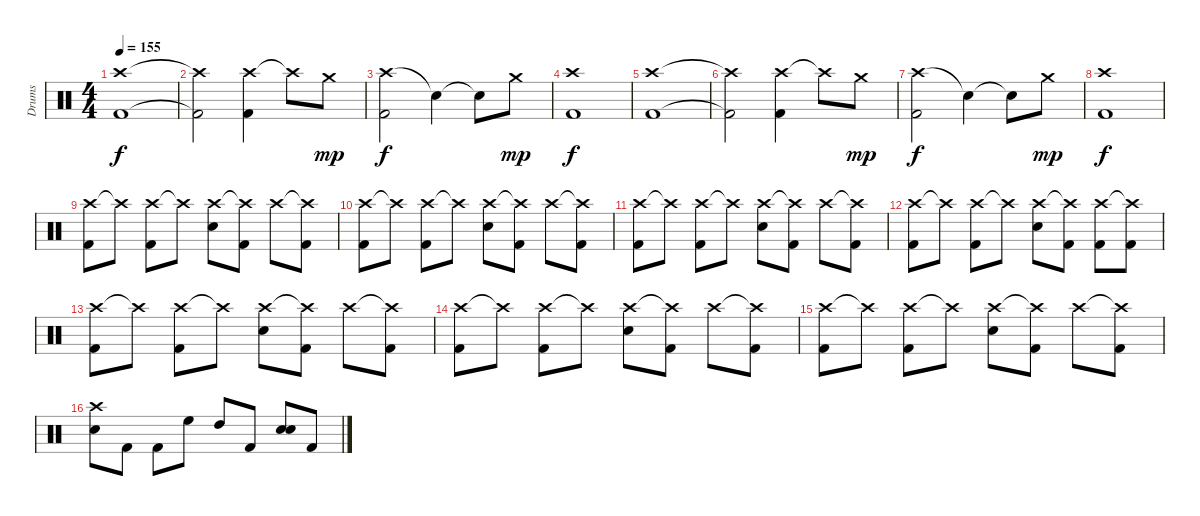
\track ("Drums" "Drums") {instrument percussion}
\staff {score}
\articulation defaults
\ts (4 4)
\tempo 155
\clef neutral
\ks c
("Crash high (hit)" "Kick (hit) 2").1{dy f} |
("Crash high (hit)"{t} "Kick (hit) 2"{t}).2 ("Crash high (hit)" "Kick (hit) 2").4 "Crash high (hit)"{t}.8 "Crash medium (hit)".8{dy mp} |
("Crash high (hit)" "Kick (hit) 2").2{dy f} "Snare (hit)"{t}.4 "Snare (hit)"{t}.8 "Crash medium (hit)".8{dy mp} |
("Crash high (hit)" "Kick (hit) 2").1{dy f} |
("Crash high (hit)" "Kick (hit) 2").1 |
("Crash high (hit)"{t} "Kick (hit) 2"{t}).2 ("Crash high (hit)" "Kick (hit) 2").4 "Crash high (hit)"{t}.8 "Crash medium (hit)".8{dy mp} |
("Crash high (hit)" "Kick (hit) 2").2{dy f} "Snare (hit)"{t}.4 "Snare (hit)"{t}.8 "Crash medium (hit)".8{dy mp} |
("Crash high (hit)" "Kick (hit) 2").1{dy f} |
("Crash high (hit)" "Kick (hit) 2").8 "Crash high (hit)"{t}.8 ("Crash high (hit)" "Kick (hit) 2").8 "Crash high (hit)"{t}.8 ("Crash high (hit)" "Electric Snare (hit)").8 ("Crash high (hit)"{t} "Kick (hit) 2").8 "Crash high (hit)".8 ("Crash high (hit)"{t} "Kick (hit) 2").8 |
("Crash high (hit)" "Kick (hit) 2").8 "Crash high (hit)"{t}.8 ("Crash high (hit)" "Kick (hit) 2").8 "Crash high (hit)"{t}.8 ("Crash high (hit)" "Electric Snare (hit)").8 ("Crash high (hit)"{t} "Kick (hit) 2").8 "Crash high (hit)".8 ("Crash high (hit)"{t} "Kick (hit) 2").8 |
("Crash high (hit)" "Kick (hit) 2").8 "Crash high (hit)"{t}.8 ("Crash high (hit)" "Kick (hit) 2").8 "Crash high (hit)"{t}.8 ("Crash high (hit)" "Electric Snare (hit)").8 ("Crash high (hit)"{t} "Kick (hit) 2").8 "Crash high (hit)".8 ("Crash high (hit)"{t} "Kick (hit) 2").8 |
("Crash high (hit)" "Kick (hit) 2").8 "Crash high (hit)"{t}.8 ("Crash high (hit)" "Kick (hit) 2").8 "Crash high (hit)"{t}.8 ("Crash high (hit)" "Electric Snare (hit)").8 ("Crash high (hit)"{t} "Kick (hit) 2").8 ("Crash high (hit)" "Kick (hit) 2").8 ("Crash high (hit)"{t} "Kick (hit) 2").8 |
("Crash high (hit)" "Kick (hit) 2").8 "Crash high (hit)"{t}.8 ("Crash high (hit)" "Kick (hit) 2").8 "Crash high (hit)"{t}.8 ("Crash high (hit)" "Electric Snare (hit)").8 ("Crash high (hit)"{t} "Kick (hit) 2").8 "Crash high (hit)".8 ("Crash high (hit)"{t} "Kick (hit) 2").8 |
("Crash high (hit)" "Kick (hit) 2").8 "Crash high (hit)"{t}.8 ("Crash high (hit)" "Kick (hit) 2").8 "Crash high (hit)"{t}.8 ("Crash high (hit)" "Electric Snare (hit)").8 ("Crash high (hit)"{t} "Kick (hit) 2").8 "Crash high (hit)".8 ("Crash high (hit)"{t} "Kick (hit) 2").8 |
("Crash high (hit)" "Kick (hit) 2").8 "Crash high (hit)"{t}.8 ("Crash high (hit)" "Kick (hit) 2").8 "Crash high (hit)"{t}.8 ("Crash high (hit)" "Electric Snare (hit)").8 ("Crash high (hit)"{t} "Kick (hit) 2").8 "Crash high (hit)".8 ("Crash high (hit)"{t} "Kick (hit) 2").8 |
("Crash high (hit)" "Electric Snare (hit)").8 "Kick (hit) 2".8 "Kick (hit) 2".8 "High Floor Tom (hit)".8 "High Tom (hit)".8 "Kick (hit) 2".8 ("Snare (hit) 2" "Electric Snare (hit)").8 "Kick (hit) 2".8
